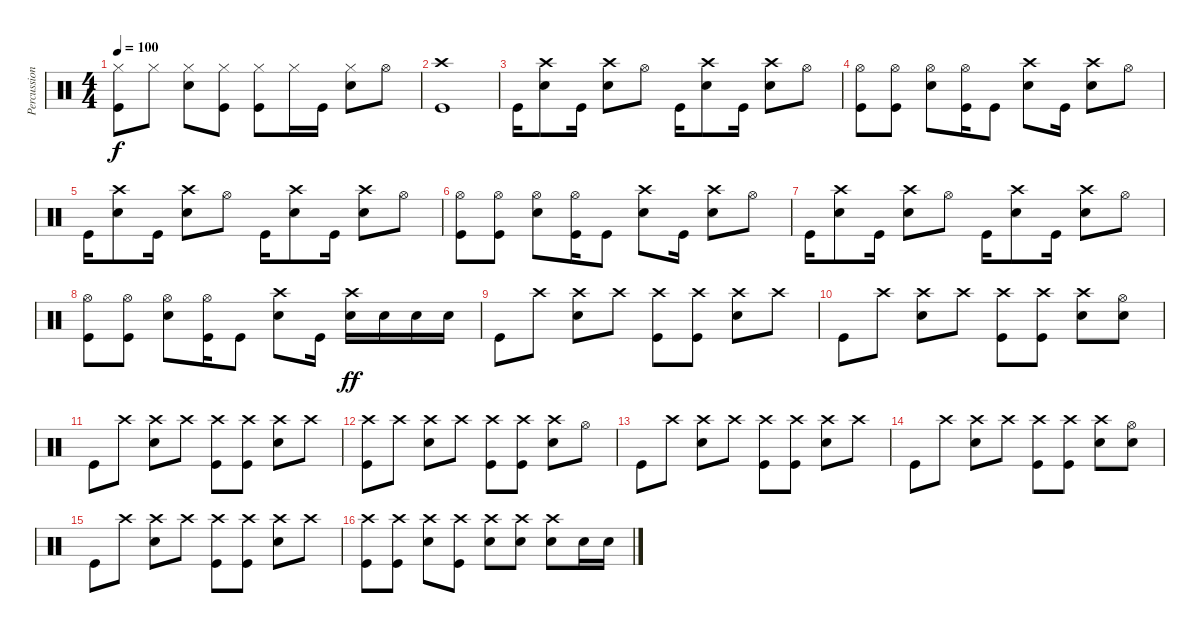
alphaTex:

\track ("Percussion" "Percussion") {instrument percussion}
\staff {score}
\articulation defaults
\ts (4 4)
\tempo 100
\clef neutral
\ks c
("Hi-Hat (closed)" "Kick (hit)").8{dy f} "Hi-Hat (closed)".8 ("Hi-Hat (closed)" "Electric Snare (hit)").8 ("Hi-Hat (closed)" "Kick (hit)").8 ("Hi-Hat (closed)" "Kick (hit)").8 "Hi-Hat (closed)".16 "Kick (hit)".16 ("Hi-Hat (closed)" "Electric Snare (hit)").8 "Hi-Hat (open)".8 |
("Crash high (hit)" "Kick (hit)").1 |
"Kick (hit)".16 ("Crash high (hit)" "Electric Snare (hit)").8 "Kick (hit)".16 ("Crash high (hit)" "Electric Snare (hit)").8 "Hi-Hat (open)".8 "Kick (hit)".16 ("Crash high (hit)" "Electric Snare (hit)").8 "Kick (hit)".16 ("Crash high (hit)" "Electric Snare (hit)").8 "Hi-Hat (open)".8 |
("Hi-Hat (open)" "Kick (hit)").8 ("Hi-Hat (open)" "Kick (hit)").8 ("Hi-Hat (open)" "Electric Snare (hit)").8 ("Hi-Hat (open)" "Kick (hit)").16 "Kick (hit)".8 ("Crash high (hit)" "Electric Snare (hit)").8 "Kick (hit)".16 ("Crash high (hit)" "Electric Snare (hit)").8 "Hi-Hat (open)".8 |
"Kick (hit)".16 ("Crash high (hit)" "Electric Snare (hit)").8 "Kick (hit)".16 ("Crash high (hit)" "Electric Snare (hit)").8 "Hi-Hat (open)".8 "Kick (hit)".16 ("Crash high (hit)" "Electric Snare (hit)").8 "Kick (hit)".16 ("Crash high (hit)" "Electric Snare (hit)").8 "Hi-Hat (open)".8 |
("Hi-Hat (open)" "Kick (hit)").8 ("Hi-Hat (open)" "Kick (hit)").8 ("Hi-Hat (open)" "Electric Snare (hit)").8 ("Hi-Hat (open)" "Kick (hit)").16 "Kick (hit)".8 ("Crash high (hit)" "Electric Snare (hit)").8 "Kick (hit)".16 ("Crash high (hit)" "Electric Snare (hit)").8 "Hi-Hat (open)".8 |
"Kick (hit)".16 ("Crash high (hit)" "Electric Snare (hit)").8 "Kick (hit)".16 ("Crash high (hit)" "Electric Snare (hit)").8 "Hi-Hat (open)".8 "Kick (hit)".16 ("Crash high (hit)" "Electric Snare (hit)").8 "Kick (hit)".16 ("Crash high (hit)" "Electric Snare (hit)").8 "Hi-Hat (open)".8 |
("Hi-Hat (open)" "Kick (hit)").8 ("Hi-Hat (open)" "Kick (hit)").8 ("Hi-Hat (open)" "Electric Snare (hit)").8 ("Hi-Hat (open)" "Kick (hit)").16 "Kick (hit)".8 ("Crash high (hit)" "Electric Snare (hit)").8 "Kick (hit)".16 ("Crash high (hit)" "Electric Snare (hit)").16{dy ff} "Electric Snare (hit)".16 "Electric Snare (hit)".16 "Electric Snare (hit)".16 |
"Kick (hit)".8 "Crash high (hit)".8 ("Crash high (hit)" "Electric Snare (hit)").8 "Crash high (hit)".8 ("Crash high (hit)" "Kick (hit)").8 ("Crash high (hit)" "Kick (hit)").8 ("Crash high (hit)" "Electric Snare (hit)").8 "Crash high (hit)".8 |
"Kick (hit)".8 "Crash high (hit)".8 ("Crash high (hit)" "Electric Snare (hit)").8 "Crash high (hit)".8 ("Crash high (hit)" "Kick (hit)").8 ("Crash high (hit)" "Kick (hit)").8 ("Crash high (hit)" "Electric Snare (hit)").8 ("Hi-Hat (open)" "Electric Snare (hit)").8 |
"Kick (hit)".8 "Crash high (hit)".8 ("Crash high (hit)" "Electric Snare (hit)").8 "Crash high (hit)".8 ("Crash high (hit)" "Kick (hit)").8 ("Crash high (hit)" "Kick (hit)").8 ("Crash high (hit)" "Electric Snare (hit)").8 "Crash high (hit)".8 |
("Crash high (hit)" "Kick (hit)").8 "Crash high (hit)".8 ("Crash high (hit)" "Electric Snare (hit)").8 "Crash high (hit)".8 ("Crash high (hit)" "Kick (hit)").8 ("Crash high (hit)" "Kick (hit)").8 ("Crash high (hit)" "Electric Snare (hit)").8 "Hi-Hat (open)".8 |
"Kick (hit)".8 "Crash high (hit)".8 ("Crash high (hit)" "Electric Snare (hit)").8 "Crash high (hit)".8 ("Crash high (hit)" "Kick (hit)").8 ("Crash high (hit)" "Kick (hit)").8 ("Crash high (hit)" "Electric Snare (hit)").8 "Crash high (hit)".8 |
"Kick (hit)".8 "Crash high (hit)".8 ("Crash high (hit)" "Electric Snare (hit)").8 "Crash high (hit)".8 ("Crash high (hit)" "Kick (hit)").8 ("Crash high (hit)" "Kick (hit)").8 ("Crash high (hit)" "Electric Snare (hit)").8 ("Hi-Hat (open)" "Electric Snare (hit)").8 |
"Kick (hit)".8 "Crash high (hit)".8 ("Crash high (hit)" "Electric Snare (hit)").8 "Crash high (hit)".8 ("Crash high (hit)" "Kick (hit)").8 ("Crash high (hit)" "Kick (hit)").8 ("Crash high (hit)" "Electric Snare (hit)").8 "Crash high (hit)".8 |
("Crash high (hit)" "Kick (hit)").8 ("Crash high (hit)" "Kick (hit)").8 ("Crash high (hit)" "Electric Snare (hit)").8 ("Crash high (hit)" "Kick (hit)").8 ("Crash high (hit)" "Electric Snare (hit)").8 ("Crash high (hit)" "Electric Snare (hit)").8 ("Crash high (hit)" "Electric Snare (hit)").8 "Electric Snare (hit)".16 "Electric Snare (hit)".16
